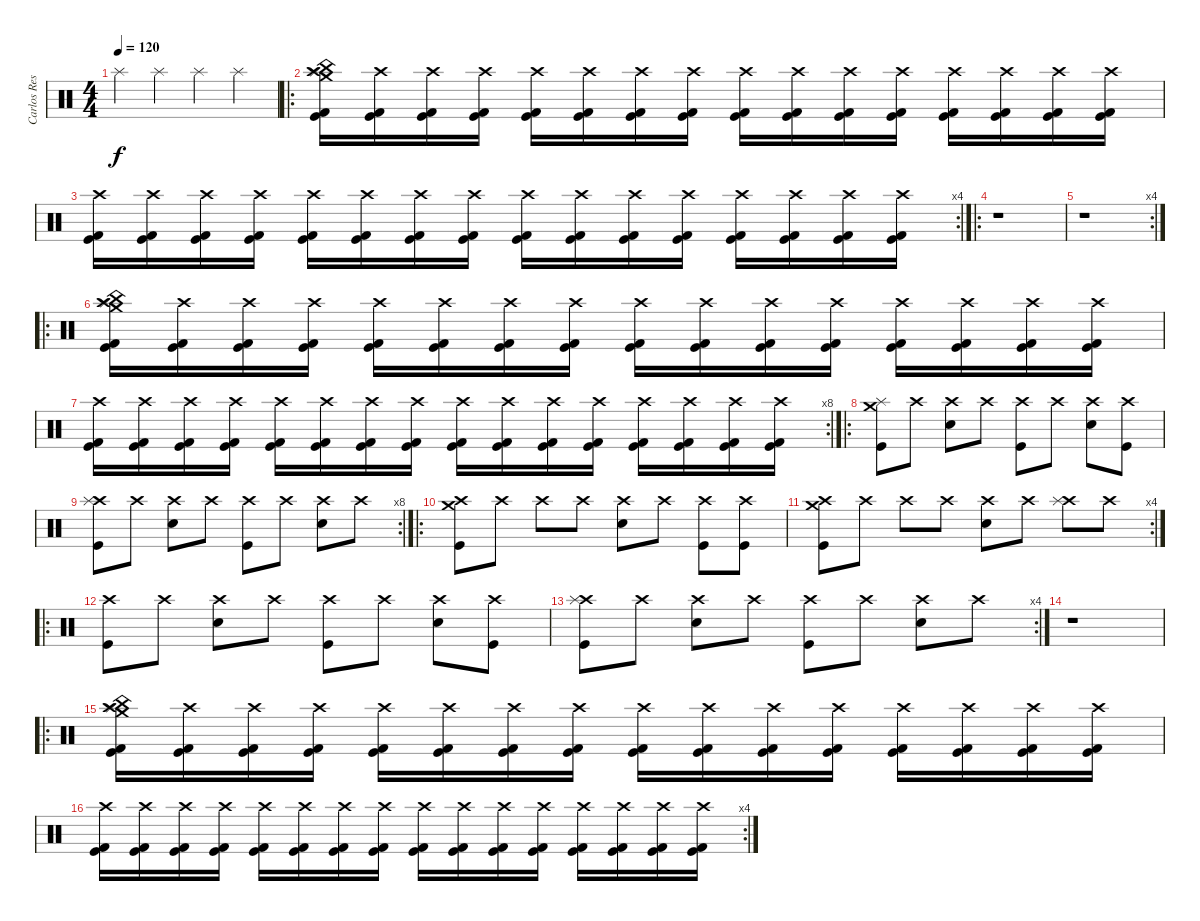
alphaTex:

\track ("Carlos Restrepo" "Carlos Res") {instrument percussion}
\staff {score}
\articulation defaults
\ts (4 4)
\tempo 120
\clef neutral
\ks c "Splash (hit)".4{dy f} "Splash (hit)".4 "Splash (hit)".4 "Splash (hit)".4
|
\ro
("Crash high (hit)" "Splash (hit)" "Kick (hit) 2" "Crash medium (hit)" "China (hit)" "Kick (hit)").16 ("Crash high (hit)" "Kick (hit) 2" "Kick (hit)").16 ("Crash high (hit)" "Kick (hit) 2" "Kick (hit)").16 ("Crash high (hit)" "Kick (hit) 2" "Kick (hit)").16 ("Crash high (hit)" "Kick (hit) 2" "Kick (hit)").16 ("Crash high (hit)" "Kick (hit) 2" "Kick (hit)").16 ("Crash high (hit)" "Kick (hit) 2" "Kick (hit)").16 ("Crash high (hit)" "Kick (hit) 2" "Kick (hit)").16 ("Crash high (hit)" "Kick (hit) 2" "Kick (hit)").16 ("Crash high (hit)" "Kick (hit) 2" "Kick (hit)").16 ("Crash high (hit)" "Kick (hit) 2" "Kick (hit)").16 ("Crash high (hit)" "Kick (hit) 2" "Kick (hit)").16 ("Crash high (hit)" "Kick (hit) 2" "Kick (hit)").16 ("Crash high (hit)" "Kick (hit) 2" "Kick (hit)").16 ("Crash high (hit)" "Kick (hit) 2" "Kick (hit)").16 ("Crash high (hit)" "Kick (hit) 2" "Kick (hit)").16 |
\rc 4
("Crash high (hit)" "Kick (hit) 2" "Kick (hit)").16 ("Crash high (hit)" "Kick (hit) 2" "Kick (hit)").16 ("Crash high (hit)" "Kick (hit) 2" "Kick (hit)").16 ("Crash high (hit)" "Kick (hit) 2" "Kick (hit)").16 ("Crash high (hit)" "Kick (hit) 2" "Kick (hit)").16 ("Crash high (hit)" "Kick (hit) 2" "Kick (hit)").16 ("Crash high (hit)" "Kick (hit) 2" "Kick (hit)").16 ("Crash high (hit)" "Kick (hit) 2" "Kick (hit)").16 ("Crash high (hit)" "Kick (hit) 2" "Kick (hit)").16 ("Crash high (hit)" "Kick (hit) 2" "Kick (hit)").16 ("Crash high (hit)" "Kick (hit) 2" "Kick (hit)").16 ("Crash high (hit)" "Kick (hit) 2" "Kick (hit)").16 ("Crash high (hit)" "Kick (hit) 2" "Kick (hit)").16 ("Crash high (hit)" "Kick (hit) 2" "Kick (hit)").16 ("Crash high (hit)" "Kick (hit) 2" "Kick (hit)").16 ("Crash high (hit)" "Kick (hit) 2" "Kick (hit)").16 |
\ro
r.1 |
\rc 4
r.1 |
\ro
("Crash high (hit)" "Splash (hit)" "Kick (hit) 2" "Crash medium (hit)" "China (hit)" "Kick (hit)").16 ("Crash high (hit)" "Kick (hit) 2" "Kick (hit)").16 ("Crash high (hit)" "Kick (hit) 2" "Kick (hit)").16 ("Crash high (hit)" "Kick (hit) 2" "Kick (hit)").16 ("Crash high (hit)" "Kick (hit) 2" "Kick (hit)").16 ("Crash high (hit)" "Kick (hit) 2" "Kick (hit)").16 ("Crash high (hit)" "Kick (hit) 2" "Kick (hit)").16 ("Crash high (hit)" "Kick (hit) 2" "Kick (hit)").16 ("Crash high (hit)" "Kick (hit) 2" "Kick (hit)").16 ("Crash high (hit)" "Kick (hit) 2" "Kick (hit)").16 ("Crash high (hit)" "Kick (hit) 2" "Kick (hit)").16 ("Crash high (hit)" "Kick (hit) 2" "Kick (hit)").16 ("Crash high (hit)" "Kick (hit) 2" "Kick (hit)").16 ("Crash high (hit)" "Kick (hit) 2" "Kick (hit)").16 ("Crash high (hit)" "Kick (hit) 2" "Kick (hit)").16 ("Crash high (hit)" "Kick (hit) 2" "Kick (hit)").16 |
\rc 8
("Crash high (hit)" "Kick (hit) 2" "Kick (hit)").16 ("Crash high (hit)" "Kick (hit) 2" "Kick (hit)").16 ("Crash high (hit)" "Kick (hit) 2" "Kick (hit)").16 ("Crash high (hit)" "Kick (hit) 2" "Kick (hit)").16 ("Crash high (hit)" "Kick (hit) 2" "Kick (hit)").16 ("Crash high (hit)" "Kick (hit) 2" "Kick (hit)").16 ("Crash high (hit)" "Kick (hit) 2" "Kick (hit)").16 ("Crash high (hit)" "Kick (hit) 2" "Kick (hit)").16 ("Crash high (hit)" "Kick (hit) 2" "Kick (hit)").16 ("Crash high (hit)" "Kick (hit) 2" "Kick (hit)").16 ("Crash high (hit)" "Kick (hit) 2" "Kick (hit)").16 ("Crash high (hit)" "Kick (hit) 2" "Kick (hit)").16 ("Crash high (hit)" "Kick (hit) 2" "Kick (hit)").16 ("Crash high (hit)" "Kick (hit) 2" "Kick (hit)").16 ("Crash high (hit)" "Kick (hit) 2" "Kick (hit)").16 ("Crash high (hit)" "Kick (hit) 2" "Kick (hit)").16 |
\ro
("Crash medium (hit)" "Splash (hit)" "Kick (hit)").8 "Crash high (hit)".8 ("Crash high (hit)" "Snare (hit) 2").8 "Crash high (hit)".8 ("Crash high (hit)" "Kick (hit)").8 "Crash high (hit)".8 ("Crash high (hit)" "Snare (hit) 2").8 ("Crash high (hit)" "Kick (hit)").8 |
\rc 8
("Crash high (hit)" "Splash (hit)" "Kick (hit)").8 "Crash high (hit)".8 ("Crash high (hit)" "Snare (hit) 2").8 "Crash high (hit)".8 ("Crash high (hit)" "Kick (hit)").8 "Crash high (hit)".8 ("Crash high (hit)" "Snare (hit) 2").8 "Crash high (hit)".8 |
\ro
("Crash high (hit)" "Crash medium (hit)" "Kick (hit)").8 "Crash high (hit)".8 "Crash high (hit)".8 "Crash high (hit)".8 ("Crash high (hit)" "Snare (hit) 2").8 "Crash high (hit)".8 ("Crash high (hit)" "Kick (hit)").8 ("Crash high (hit)" "Kick (hit)").8 |
\rc 4
("Crash high (hit)" "Crash medium (hit)" "Kick (hit)").8 "Crash high (hit)".8 "Crash high (hit)".8 "Crash high (hit)".8 ("Crash high (hit)" "Snare (hit) 2").8 "Crash high (hit)".8 ("Crash high (hit)" "Splash (hit)").8 "Crash high (hit)".8 |
\ro
("Crash high (hit)" "Kick (hit)").8 "Crash high (hit)".8 ("Crash high (hit)" "Snare (hit) 2").8 "Crash high (hit)".8 ("Crash high (hit)" "Kick (hit)").8 "Crash high (hit)".8 ("Crash high (hit)" "Snare (hit) 2").8 ("Crash high (hit)" "Kick (hit)").8 |
\rc 4
("Crash high (hit)" "Splash (hit)" "Kick (hit)").8 "Crash high (hit)".8 ("Crash high (hit)" "Snare (hit) 2").8 "Crash high (hit)".8 ("Crash high (hit)" "Kick (hit)").8 "Crash high (hit)".8 ("Crash high (hit)" "Snare (hit) 2").8 "Crash high (hit)".8 |
r.1 |
\ro
("Crash high (hit)" "Splash (hit)" "Kick (hit) 2" "Crash medium (hit)" "China (hit)" "Kick (hit)").16 ("Crash high (hit)" "Kick (hit) 2" "Kick (hit)").16 ("Crash high (hit)" "Kick (hit) 2" "Kick (hit)").16 ("Crash high (hit)" "Kick (hit) 2" "Kick (hit)").16 ("Crash high (hit)" "Kick (hit) 2" "Kick (hit)").16 ("Crash high (hit)" "Kick (hit) 2" "Kick (hit)").16 ("Crash high (hit)" "Kick (hit) 2" "Kick (hit)").16 ("Crash high (hit)" "Kick (hit) 2" "Kick (hit)").16 ("Crash high (hit)" "Kick (hit) 2" "Kick (hit)").16 ("Crash high (hit)" "Kick (hit) 2" "Kick (hit)").16 ("Crash high (hit)" "Kick (hit) 2" "Kick (hit)").16 ("Crash high (hit)" "Kick (hit) 2" "Kick (hit)").16 ("Crash high (hit)" "Kick (hit) 2" "Kick (hit)").16 ("Crash high (hit)" "Kick (hit) 2" "Kick (hit)").16 ("Crash high (hit)" "Kick (hit) 2" "Kick (hit)").16 ("Crash high (hit)" "Kick (hit) 2" "Kick (hit)").16 |
\rc 4
("Crash high (hit)" "Kick (hit) 2" "Kick (hit)").16 ("Crash high (hit)" "Kick (hit) 2" "Kick (hit)").16 ("Crash high (hit)" "Kick (hit) 2" "Kick (hit)").16 ("Crash high (hit)" "Kick (hit) 2" "Kick (hit)").16 ("Crash high (hit)" "Kick (hit) 2" "Kick (hit)").16 ("Crash high (hit)" "Kick (hit) 2" "Kick (hit)").16 ("Crash high (hit)" "Kick (hit) 2" "Kick (hit)").16 ("Crash high (hit)" "Kick (hit) 2" "Kick (hit)").16 ("Crash high (hit)" "Kick (hit) 2" "Kick (hit)").16 ("Crash high (hit)" "Kick (hit) 2" "Kick (hit)").16 ("Crash high (hit)" "Kick (hit) 2" "Kick (hit)").16 ("Crash high (hit)" "Kick (hit) 2" "Kick (hit)").16 ("Crash high (hit)" "Kick (hit) 2" "Kick (hit)").16 ("Crash high (hit)" "Kick (hit) 2" "Kick (hit)").16 ("Crash high (hit)" "Kick (hit) 2" "Kick (hit)").16 ("Crash high (hit)" "Kick (hit) 2" "Kick (hit)").16
